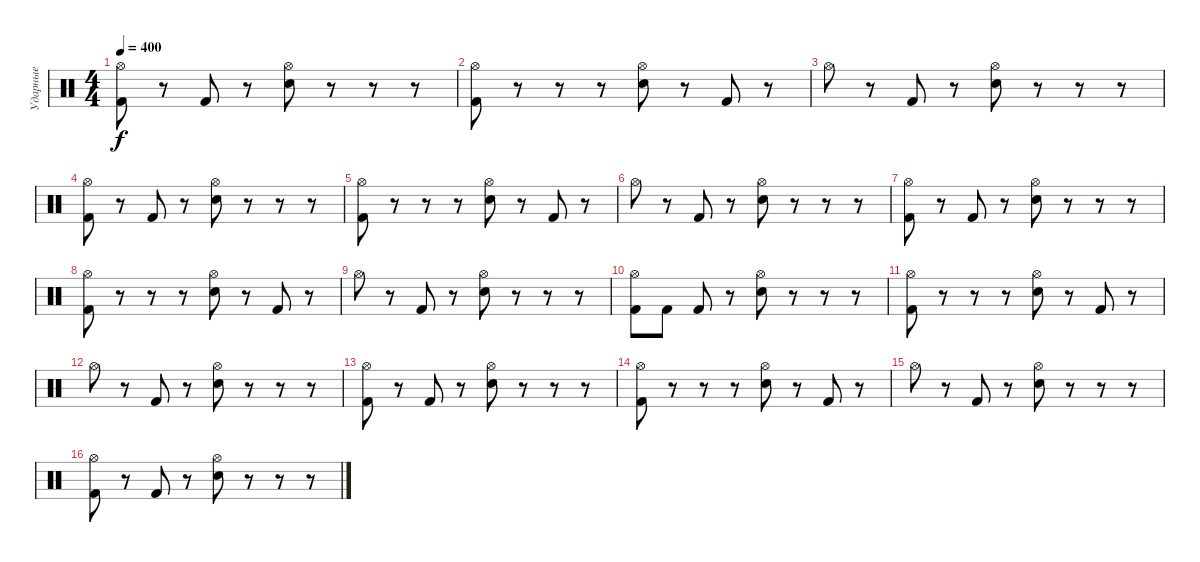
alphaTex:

\track ("Ударные" "Ударные") {instrument percussion}
\staff {score}
\articulation defaults
\ts (4 4)
\tempo 400
\clef neutral
\ks c
("Kick (hit) 2" "Hi-Hat (open)").8{dy f} r.8 "Kick (hit) 2".8 r.8 ("Electric Snare (hit)" "Hi-Hat (open)").8 r.8 r.8 r.8 |
("Kick (hit) 2" "Hi-Hat (open)").8 r.8 r.8 r.8 ("Electric Snare (hit)" "Hi-Hat (open)").8 r.8 "Kick (hit) 2".8 r.8 |
"Hi-Hat (open)".8 r.8 "Kick (hit) 2".8 r.8 ("Electric Snare (hit)" "Hi-Hat (open)").8 r.8 r.8 r.8 |
("Kick (hit) 2" "Hi-Hat (open)").8 r.8 "Kick (hit) 2".8 r.8 ("Electric Snare (hit)" "Hi-Hat (open)").8 r.8 r.8 r.8 |
("Kick (hit) 2" "Hi-Hat (open)").8 r.8 r.8 r.8 ("Electric Snare (hit)" "Hi-Hat (open)").8 r.8 "Kick (hit) 2".8 r.8 |
"Hi-Hat (open)".8 r.8 "Kick (hit) 2".8 r.8 ("Electric Snare (hit)" "Hi-Hat (open)").8 r.8 r.8 r.8 |
("Kick (hit) 2" "Hi-Hat (open)").8 r.8 "Kick (hit) 2".8 r.8 ("Electric Snare (hit)" "Hi-Hat (open)").8 r.8 r.8 r.8 |
("Kick (hit) 2" "Hi-Hat (open)").8 r.8 r.8 r.8 ("Electric Snare (hit)" "Hi-Hat (open)").8 r.8 "Kick (hit) 2".8 r.8 |
"Hi-Hat (open)".8 r.8 "Kick (hit) 2".8 r.8 ("Electric Snare (hit)" "Hi-Hat (open)").8 r.8 r.8 r.8 |
("Kick (hit) 2" "Hi-Hat (open)").8 "Kick (hit) 2".8 "Kick (hit) 2".8 r.8 ("Electric Snare (hit)" "Hi-Hat (open)").8 r.8 r.8 r.8 |
("Kick (hit) 2" "Hi-Hat (open)").8 r.8 r.8 r.8 ("Electric Snare (hit)" "Hi-Hat (open)").8 r.8 "Kick (hit) 2".8 r.8 |
"Hi-Hat (open)".8 r.8 "Kick (hit) 2".8 r.8 ("Electric Snare (hit)" "Hi-Hat (open)").8 r.8 r.8 r.8 |
("Kick (hit) 2" "Hi-Hat (open)").8 r.8 "Kick (hit) 2".8 r.8 ("Electric Snare (hit)" "Hi-Hat (open)").8 r.8 r.8 r.8 |
("Kick (hit) 2" "Hi-Hat (open)").8 r.8 r.8 r.8 ("Electric Snare (hit)" "Hi-Hat (open)").8 r.8 "Kick (hit) 2".8 r.8 |
"Hi-Hat (open)".8 r.8 "Kick (hit) 2".8 r.8 ("Electric Snare (hit)" "Hi-Hat (open)").8 r.8 r.8 r.8 |
("Kick (hit) 2" "Hi-Hat (open)").8 r.8 "Kick (hit) 2".8 r.8 ("Electric Snare (hit)" "Hi-Hat (open)").8 r.8 r.8 r.8
